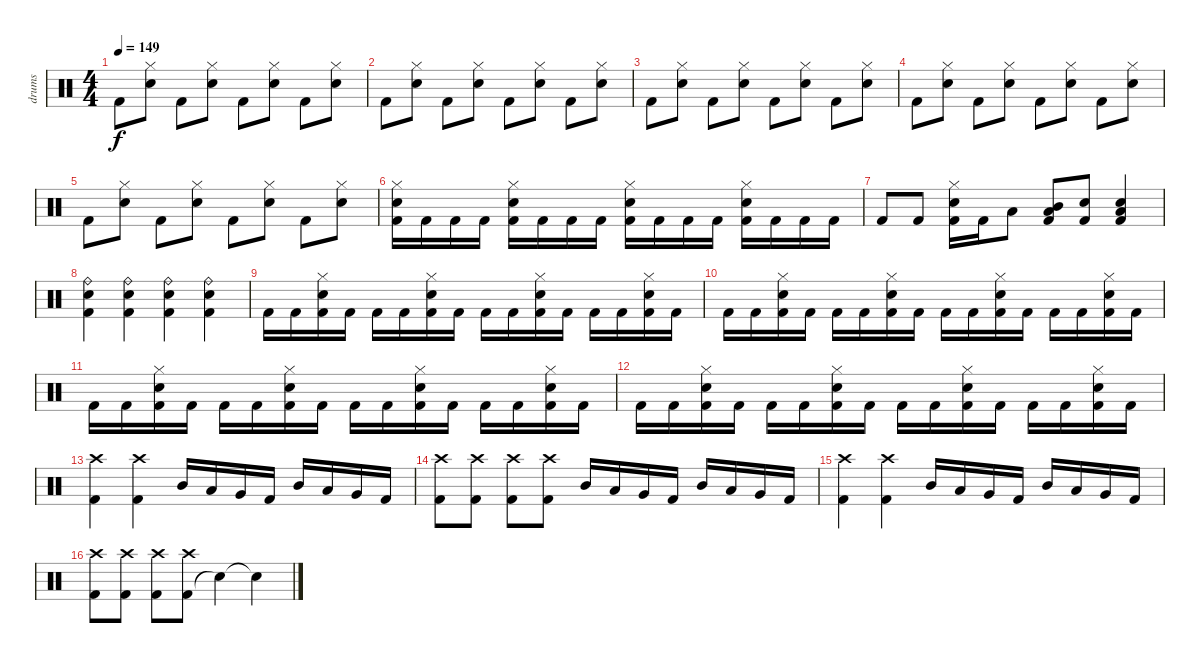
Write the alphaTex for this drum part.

\track ("drums" "drums") {instrument percussion}
\staff {score}
\articulation defaults
\ts (4 4)
\tempo 149
\clef neutral
\ks c "Kick (hit) 2".8{dy f}
("Electric Snare (hit)" "Hi-Hat (closed)").8 "Kick (hit) 2".8 ("Electric Snare (hit)" "Hi-Hat (closed)").8 "Kick (hit) 2".8 ("Electric Snare (hit)" "Hi-Hat (closed)").8 "Kick (hit) 2".8 ("Electric Snare (hit)" "Hi-Hat (closed)").8 |
"Kick (hit) 2".8 ("Electric Snare (hit)" "Hi-Hat (closed)").8 "Kick (hit) 2".8 ("Electric Snare (hit)" "Hi-Hat (closed)").8 "Kick (hit) 2".8 ("Electric Snare (hit)" "Hi-Hat (closed)").8 "Kick (hit) 2".8 ("Electric Snare (hit)" "Hi-Hat (closed)").8 |
"Kick (hit) 2".8 ("Electric Snare (hit)" "Hi-Hat (closed)").8 "Kick (hit) 2".8 ("Electric Snare (hit)" "Hi-Hat (closed)").8 "Kick (hit) 2".8 ("Electric Snare (hit)" "Hi-Hat (closed)").8 "Kick (hit) 2".8 ("Electric Snare (hit)" "Hi-Hat (closed)").8 |
"Kick (hit) 2".8 ("Electric Snare (hit)" "Hi-Hat (closed)").8 "Kick (hit) 2".8 ("Electric Snare (hit)" "Hi-Hat (closed)").8 "Kick (hit) 2".8 ("Electric Snare (hit)" "Hi-Hat (closed)").8 "Kick (hit) 2".8 ("Electric Snare (hit)" "Hi-Hat (closed)").8 |
"Kick (hit) 2".8 ("Electric Snare (hit)" "Hi-Hat (closed)").8 "Kick (hit) 2".8 ("Electric Snare (hit)" "Hi-Hat (closed)").8 "Kick (hit) 2".8 ("Electric Snare (hit)" "Hi-Hat (closed)").8 "Kick (hit) 2".8 ("Electric Snare (hit)" "Hi-Hat (closed)").8 |
("Kick (hit) 2" "Electric Snare (hit)" "Hi-Hat (closed)").16 "Kick (hit) 2".16 "Kick (hit) 2".16 "Kick (hit) 2".16 ("Kick (hit) 2" "Electric Snare (hit)" "Hi-Hat (closed)").16 "Kick (hit) 2".16 "Kick (hit) 2".16 "Kick (hit) 2".16 ("Kick (hit) 2" "Electric Snare (hit)" "Hi-Hat (closed)").16 "Kick (hit) 2".16 "Kick (hit) 2".16 "Kick (hit) 2".16 ("Kick (hit) 2" "Electric Snare (hit)" "Hi-Hat (closed)").16 "Kick (hit) 2".16 "Kick (hit) 2".16 "Kick (hit) 2".16 |
"Kick (hit) 2".8 "Kick (hit) 2".8 ("Kick (hit) 2" "Electric Snare (hit)" "Hi-Hat (closed)").16 "Kick (hit) 2".16 "Low Tom (hit)".8 ("Kick (hit) 2" "Low Tom (hit)" "Mid Tom (hit)").8 ("Kick (hit) 2" "Electric Snare (hit)").8 ("Kick (hit) 2" "Electric Snare (hit)" "Low Tom (hit)").4 |
("Kick (hit) 2" "Electric Snare (hit)" "Ride (bell)").4 ("Kick (hit) 2" "Electric Snare (hit)" "Ride (bell)").4 ("Kick (hit) 2" "Electric Snare (hit)" "Ride (bell)").4 ("Kick (hit) 2" "Electric Snare (hit)" "Ride (bell)").4 |
"Kick (hit) 2".16 "Kick (hit) 2".16 ("Kick (hit) 2" "Electric Snare (hit)" "Hi-Hat (closed)").16 "Kick (hit) 2".16 "Kick (hit) 2".16 "Kick (hit) 2".16 ("Kick (hit) 2" "Electric Snare (hit)" "Hi-Hat (closed)").16 "Kick (hit) 2".16 "Kick (hit) 2".16 "Kick (hit) 2".16 ("Kick (hit) 2" "Electric Snare (hit)" "Hi-Hat (closed)").16 "Kick (hit) 2".16 "Kick (hit) 2".16 "Kick (hit) 2".16 ("Kick (hit) 2" "Electric Snare (hit)" "Hi-Hat (closed)").16 "Kick (hit) 2".16 |
"Kick (hit) 2".16 "Kick (hit) 2".16 ("Kick (hit) 2" "Electric Snare (hit)" "Hi-Hat (closed)").16 "Kick (hit) 2".16 "Kick (hit) 2".16 "Kick (hit) 2".16 ("Kick (hit) 2" "Electric Snare (hit)" "Hi-Hat (closed)").16 "Kick (hit) 2".16 "Kick (hit) 2".16 "Kick (hit) 2".16 ("Kick (hit) 2" "Electric Snare (hit)" "Hi-Hat (closed)").16 "Kick (hit) 2".16 "Kick (hit) 2".16 "Kick (hit) 2".16 ("Kick (hit) 2" "Electric Snare (hit)" "Hi-Hat (closed)").16 "Kick (hit) 2".16 |
"Kick (hit) 2".16 "Kick (hit) 2".16 ("Kick (hit) 2" "Electric Snare (hit)" "Hi-Hat (closed)").16 "Kick (hit) 2".16 "Kick (hit) 2".16 "Kick (hit) 2".16 ("Kick (hit) 2" "Electric Snare (hit)" "Hi-Hat (closed)").16 "Kick (hit) 2".16 "Kick (hit) 2".16 "Kick (hit) 2".16 ("Kick (hit) 2" "Electric Snare (hit)" "Hi-Hat (closed)").16 "Kick (hit) 2".16 "Kick (hit) 2".16 "Kick (hit) 2".16 ("Kick (hit) 2" "Electric Snare (hit)" "Hi-Hat (closed)").16 "Kick (hit) 2".16 |
"Kick (hit) 2".16 "Kick (hit) 2".16 ("Kick (hit) 2" "Electric Snare (hit)" "Hi-Hat (closed)").16 "Kick (hit) 2".16 "Kick (hit) 2".16 "Kick (hit) 2".16 ("Kick (hit) 2" "Electric Snare (hit)" "Hi-Hat (closed)").16 "Kick (hit) 2".16 "Kick (hit) 2".16 "Kick (hit) 2".16 ("Kick (hit) 2" "Electric Snare (hit)" "Hi-Hat (closed)").16 "Kick (hit) 2".16 "Kick (hit) 2".16 "Kick (hit) 2".16 ("Kick (hit) 2" "Electric Snare (hit)" "Hi-Hat (closed)").16 "Kick (hit) 2".16 |
("Kick (hit) 2" "Crash high (hit)").4 ("Kick (hit) 2" "Crash high (hit)").4 "Mid Tom (hit)".16 "Low Tom (hit)".16 "Very Low Tom (hit)".16 "Kick (hit) 2".16 "Mid Tom (hit)".16 "Low Tom (hit)".16 "Very Low Tom (hit)".16 "Kick (hit) 2".16 |
("Kick (hit) 2" "Crash high (hit)").8 ("Kick (hit) 2" "Crash high (hit)").8 ("Kick (hit) 2" "Crash high (hit)").8 ("Kick (hit) 2" "Crash high (hit)").8 "Mid Tom (hit)".16 "Low Tom (hit)".16 "Very Low Tom (hit)".16 "Kick (hit) 2".16 "Mid Tom (hit)".16 "Low Tom (hit)".16 "Very Low Tom (hit)".16 "Kick (hit) 2".16 |
("Kick (hit) 2" "Crash high (hit)").4 ("Kick (hit) 2" "Crash high (hit)").4 "Mid Tom (hit)".16 "Low Tom (hit)".16 "Very Low Tom (hit)".16 "Kick (hit) 2".16 "Mid Tom (hit)".16 "Low Tom (hit)".16 "Very Low Tom (hit)".16 "Kick (hit) 2".16 |
("Kick (hit) 2" "Crash high (hit)").8 ("Kick (hit) 2" "Crash high (hit)").8 ("Kick (hit) 2" "Crash high (hit)").8 ("Kick (hit) 2" "Crash high (hit)").8 "Snare (hit)"{t}.4 "Snare (hit)"{t}.4
